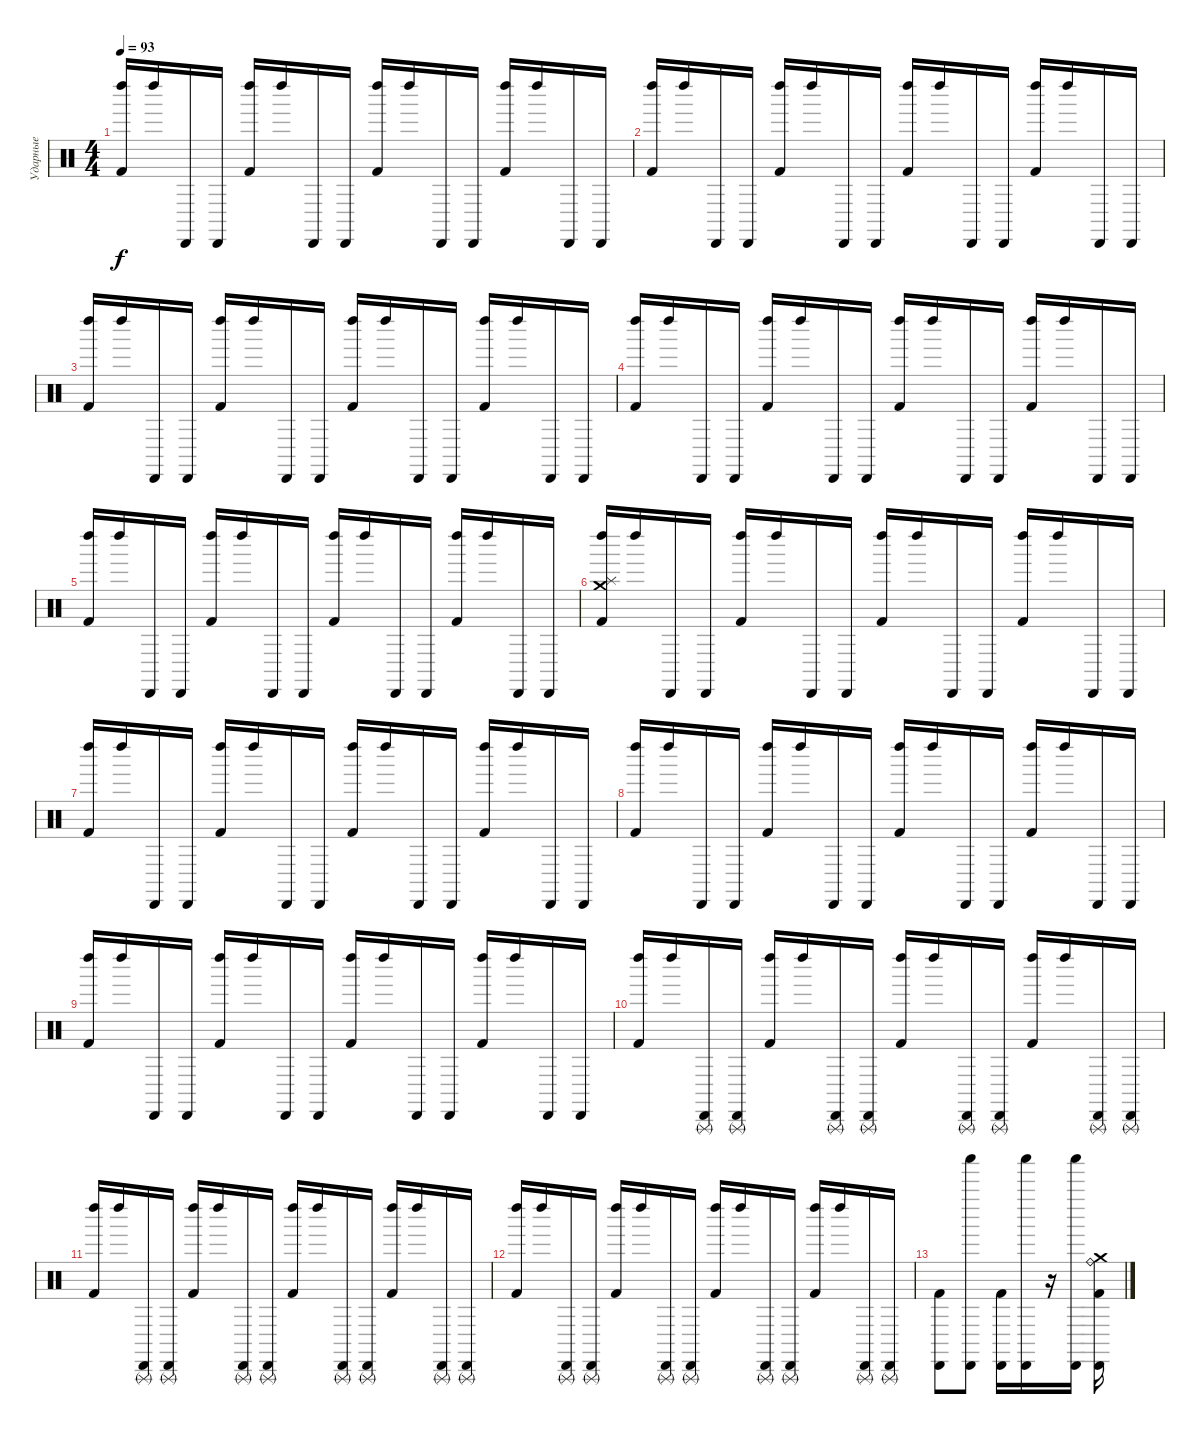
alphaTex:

\track ("Ударные" "Ударные") {solo instrument percussion}
\staff {score}
\articulation defaults
\ts (4 4)
\tempo 93
\clef neutral
\ks c
("Kick (hit) 2" "Left Maraca (hit)").16{dy f} "Left Maraca (hit)".16 "Cabasa (hit)".16 "Cabasa (hit)".16 ("Kick (hit) 2" "Left Maraca (hit)").16 "Left Maraca (hit)".16 "Cabasa (hit)".16 "Cabasa (hit)".16 ("Kick (hit) 2" "Left Maraca (hit)").16 "Left Maraca (hit)".16 "Cabasa (hit)".16 "Cabasa (hit)".16 ("Kick (hit) 2" "Left Maraca (hit)").16 "Left Maraca (hit)".16 "Cabasa (hit)".16 "Cabasa (hit)".16 |
("Kick (hit) 2" "Left Maraca (hit)").16 "Left Maraca (hit)".16 "Cabasa (hit)".16 "Cabasa (hit)".16 ("Kick (hit) 2" "Left Maraca (hit)").16 "Left Maraca (hit)".16 "Cabasa (hit)".16 "Cabasa (hit)".16 ("Kick (hit) 2" "Left Maraca (hit)").16 "Left Maraca (hit)".16 "Cabasa (hit)".16 "Cabasa (hit)".16 ("Kick (hit) 2" "Left Maraca (hit)").16 "Left Maraca (hit)".16 "Cabasa (hit)".16 "Cabasa (hit)".16 |
("Kick (hit) 2" "Left Maraca (hit)").16 "Left Maraca (hit)".16 "Cabasa (hit)".16 "Cabasa (hit)".16 ("Kick (hit) 2" "Left Maraca (hit)").16 "Left Maraca (hit)".16 "Cabasa (hit)".16 "Cabasa (hit)".16 ("Kick (hit) 2" "Left Maraca (hit)").16 "Left Maraca (hit)".16 "Cabasa (hit)".16 "Cabasa (hit)".16 ("Kick (hit) 2" "Left Maraca (hit)").16 "Left Maraca (hit)".16 "Cabasa (hit)".16 "Cabasa (hit)".16 |
("Kick (hit) 2" "Left Maraca (hit)").16 "Left Maraca (hit)".16 "Cabasa (hit)".16 "Cabasa (hit)".16 ("Kick (hit) 2" "Left Maraca (hit)").16 "Left Maraca (hit)".16 "Cabasa (hit)".16 "Cabasa (hit)".16 ("Kick (hit) 2" "Left Maraca (hit)").16 "Left Maraca (hit)".16 "Cabasa (hit)".16 "Cabasa (hit)".16 ("Kick (hit) 2" "Left Maraca (hit)").16 "Left Maraca (hit)".16 "Cabasa (hit)".16 "Cabasa (hit)".16 |
("Kick (hit) 2" "Left Maraca (hit)").16 "Left Maraca (hit)".16 "Cabasa (hit)".16 "Cabasa (hit)".16 ("Kick (hit) 2" "Left Maraca (hit)").16 "Left Maraca (hit)".16 "Cabasa (hit)".16 "Cabasa (hit)".16 ("Kick (hit) 2" "Left Maraca (hit)").16 "Left Maraca (hit)".16 "Cabasa (hit)".16 "Cabasa (hit)".16 ("Kick (hit) 2" "Left Maraca (hit)").16 "Left Maraca (hit)".16 "Cabasa (hit)".16 "Cabasa (hit)".16 |
("Kick (hit) 2" "Crash medium (hit)" "Left Maraca (hit)" "Splash (hit)").16 "Left Maraca (hit)".16 "Cabasa (hit)".16 "Cabasa (hit)".16 ("Kick (hit) 2" "Left Maraca (hit)").16 "Left Maraca (hit)".16 "Cabasa (hit)".16 "Cabasa (hit)".16 ("Kick (hit) 2" "Left Maraca (hit)").16 "Left Maraca (hit)".16 "Cabasa (hit)".16 "Cabasa (hit)".16 ("Kick (hit) 2" "Left Maraca (hit)").16 "Left Maraca (hit)".16 "Cabasa (hit)".16 "Cabasa (hit)".16 |
("Kick (hit) 2" "Left Maraca (hit)").16 "Left Maraca (hit)".16 "Cabasa (hit)".16 "Cabasa (hit)".16 ("Kick (hit) 2" "Left Maraca (hit)").16 "Left Maraca (hit)".16 "Cabasa (hit)".16 "Cabasa (hit)".16 ("Kick (hit) 2" "Left Maraca (hit)").16 "Left Maraca (hit)".16 "Cabasa (hit)".16 "Cabasa (hit)".16 ("Kick (hit) 2" "Left Maraca (hit)").16 "Left Maraca (hit)".16 "Cabasa (hit)".16 "Cabasa (hit)".16 |
("Kick (hit) 2" "Left Maraca (hit)").16 "Left Maraca (hit)".16 "Cabasa (hit)".16 "Cabasa (hit)".16 ("Kick (hit) 2" "Left Maraca (hit)").16 "Left Maraca (hit)".16 "Cabasa (hit)".16 "Cabasa (hit)".16 ("Kick (hit) 2" "Left Maraca (hit)").16 "Left Maraca (hit)".16 "Cabasa (hit)".16 "Cabasa (hit)".16 ("Kick (hit) 2" "Left Maraca (hit)").16 "Left Maraca (hit)".16 "Cabasa (hit)".16 "Cabasa (hit)".16 |
("Kick (hit) 2" "Left Maraca (hit)").16 "Left Maraca (hit)".16 "Cabasa (hit)".16 "Cabasa (hit)".16 ("Kick (hit) 2" "Left Maraca (hit)").16 "Left Maraca (hit)".16 "Cabasa (hit)".16 "Cabasa (hit)".16 ("Kick (hit) 2" "Left Maraca (hit)").16 "Left Maraca (hit)".16 "Cabasa (hit)".16 "Cabasa (hit)".16 ("Kick (hit) 2" "Left Maraca (hit)").16 "Left Maraca (hit)".16 "Cabasa (hit)".16 "Cabasa (hit)".16 |
("Kick (hit) 2" "Left Maraca (hit)").16 "Left Maraca (hit)".16 ("Cabasa (hit)" "Triangle (rnute)").16 ("Cabasa (hit)" "Triangle (rnute)").16 ("Kick (hit) 2" "Left Maraca (hit)").16 "Left Maraca (hit)".16 ("Cabasa (hit)" "Triangle (rnute)").16 ("Cabasa (hit)" "Triangle (rnute)").16 ("Kick (hit) 2" "Left Maraca (hit)").16 "Left Maraca (hit)".16 ("Cabasa (hit)" "Triangle (rnute)").16 ("Cabasa (hit)" "Triangle (rnute)").16 ("Kick (hit) 2" "Left Maraca (hit)").16 "Left Maraca (hit)".16 ("Cabasa (hit)" "Triangle (rnute)").16 ("Cabasa (hit)" "Triangle (rnute)").16 |
("Kick (hit) 2" "Left Maraca (hit)").16 "Left Maraca (hit)".16 ("Cabasa (hit)" "Triangle (rnute)").16 ("Cabasa (hit)" "Triangle (rnute)").16 ("Kick (hit) 2" "Left Maraca (hit)").16 "Left Maraca (hit)".16 ("Cabasa (hit)" "Triangle (rnute)").16 ("Cabasa (hit)" "Triangle (rnute)").16 ("Kick (hit) 2" "Left Maraca (hit)").16 "Left Maraca (hit)".16 ("Cabasa (hit)" "Triangle (rnute)").16 ("Cabasa (hit)" "Triangle (rnute)").16 ("Kick (hit) 2" "Left Maraca (hit)").16 "Left Maraca (hit)".16 ("Cabasa (hit)" "Triangle (rnute)").16 ("Cabasa (hit)" "Triangle (rnute)").16 |
("Kick (hit) 2" "Left Maraca (hit)").16 "Left Maraca (hit)".16 ("Cabasa (hit)" "Triangle (rnute)").16 ("Cabasa (hit)" "Triangle (rnute)").16 ("Kick (hit) 2" "Left Maraca (hit)").16 "Left Maraca (hit)".16 ("Cabasa (hit)" "Triangle (rnute)").16 ("Cabasa (hit)" "Triangle (rnute)").16 ("Kick (hit) 2" "Left Maraca (hit)").16 "Left Maraca (hit)".16 ("Cabasa (hit)" "Triangle (rnute)").16 ("Cabasa (hit)" "Triangle (rnute)").16 ("Kick (hit) 2" "Left Maraca (hit)").16 "Left Maraca (hit)".16 ("Cabasa (hit)" "Triangle (rnute)").16 ("Cabasa (hit)" "Triangle (rnute)").16 |
("Kick (hit) 2" "Cabasa (hit)").8 ("Shaker (hit)" "Cabasa (hit)").8 ("Kick (hit) 2" "Cabasa (hit)").16 ("Shaker (hit)" "Cabasa (hit)").16 r.16 ("Shaker (hit)" "Cabasa (hit)").16 ("Kick (hit) 2" "Ride (bell)" "Crash medium (hit)" "Cabasa (hit)").16
